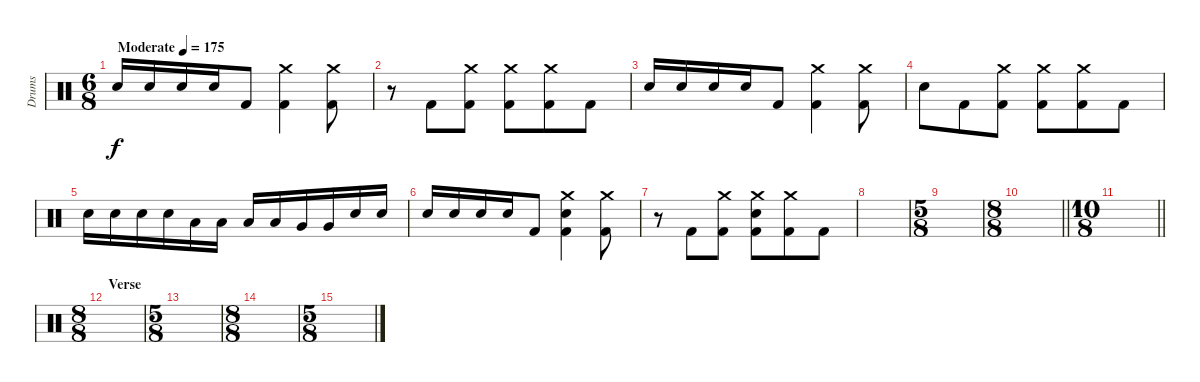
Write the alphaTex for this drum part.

\track ("Drums" "Drums") {instrument percussion}
\staff {score}
\articulation defaults
\ts (6 8)
\tempo (175 "Moderate")
\clef neutral
\ks c "Electric Snare (hit)".16{dy f} "Electric Snare (hit)".16 "Electric Snare (hit)".16 "Electric Snare (hit)".16 "Kick (hit) 2".8
("Crash medium (hit)" "Kick (hit) 2").4 ("Crash medium (hit)" "Kick (hit) 2").8 |
r.8 "Kick (hit) 2".8 ("Crash medium (hit)" "Kick (hit) 2").8 ("Crash medium (hit)" "Kick (hit) 2").8 ("Crash medium (hit)" "Kick (hit) 2").8 "Kick (hit) 2".8 |
"Electric Snare (hit)".16 "Electric Snare (hit)".16 "Electric Snare (hit)".16 "Electric Snare (hit)".16 "Kick (hit) 2".8 ("Crash medium (hit)" "Kick (hit) 2").4 ("Crash medium (hit)" "Kick (hit) 2").8 |
"Electric Snare (hit)".8 "Kick (hit) 2".8 ("Crash medium (hit)" "Kick (hit) 2").8 ("Crash medium (hit)" "Kick (hit) 2").8 ("Crash medium (hit)" "Kick (hit) 2").8 "Kick (hit) 2".8 |
"Electric Snare (hit)".16 "Electric Snare (hit)".16 "Electric Snare (hit)".16 "Electric Snare (hit)".16 "Low Tom (hit)".16 "Low Tom (hit)".16 "Low Tom (hit)".16 "Low Tom (hit)".16 "Very Low Tom (hit)".16 "Very Low Tom (hit)".16 "Electric Snare (hit)".16 "Electric Snare (hit)".16 |
"Electric Snare (hit)".16 "Electric Snare (hit)".16 "Electric Snare (hit)".16 "Electric Snare (hit)".16 "Kick (hit) 2".8 ("Crash medium (hit)" "Electric Snare (hit)" "Kick (hit) 2").4 ("Crash medium (hit)" "Kick (hit) 2").8 |
r.8 "Kick (hit) 2".8 ("Crash medium (hit)" "Kick (hit) 2").8 ("Crash medium (hit)" "Electric Snare (hit)" "Kick (hit) 2").8 ("Crash medium (hit)" "Kick (hit) 2").8 "Kick (hit) 2".8 |
|
\ts (5 8)
|
\ts (8 8)
\barLineRight lightlight
|
\ts (10 8)
\section ("" "")
\barLineRight lightlight
|
\ts (8 8)
\section ("" "Verse")
|
\ts (5 8)
|
\ts (8 8)
|
\ts (5 8)
